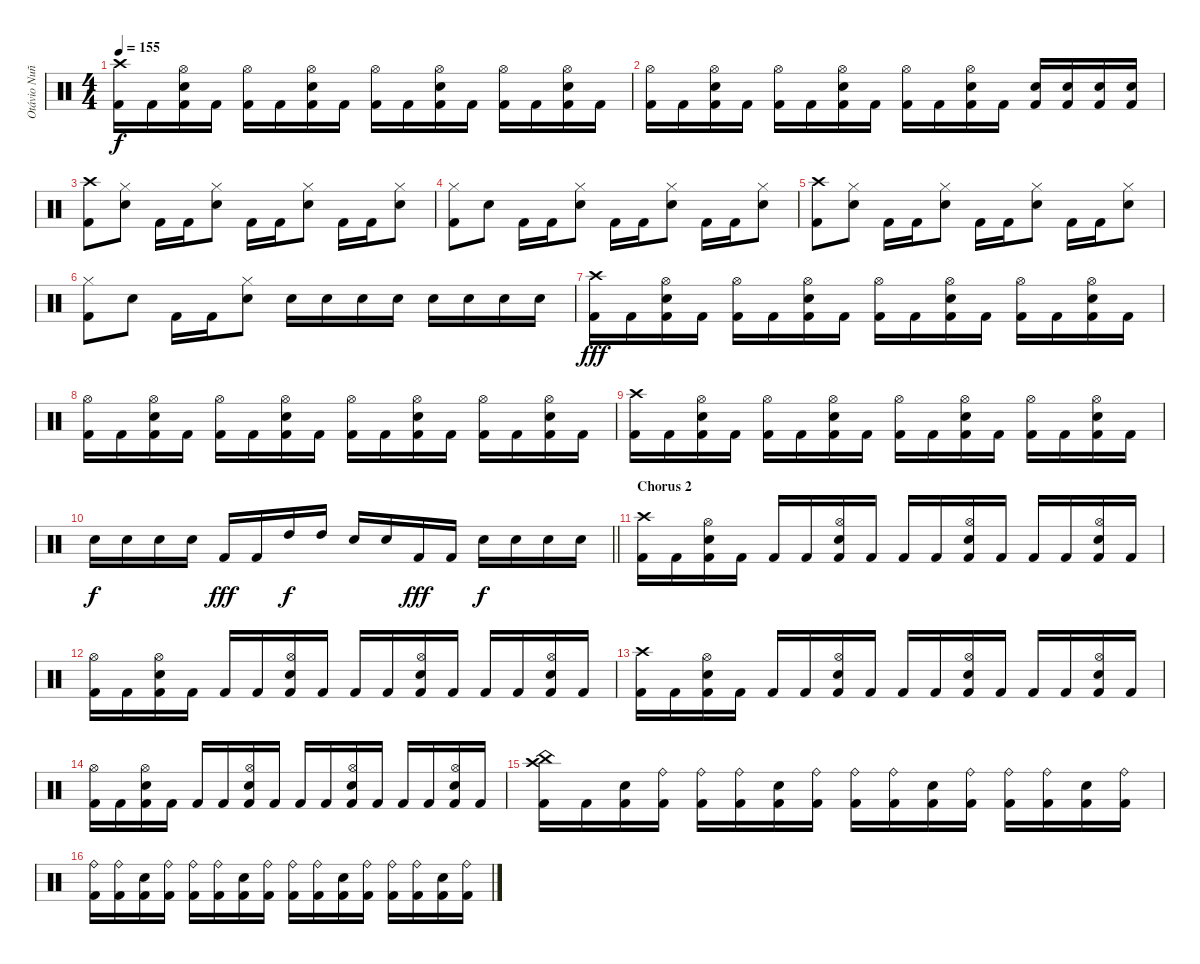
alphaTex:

\track ("Otávio Nuñez" "Otávio Nuñ") {instrument percussion}
\staff {score}
\articulation defaults
\ts (4 4)
\tempo 155
\clef neutral
\ks c
("Crash high (hit)" "Kick (hit) 2").16{dy f} "Kick (hit) 2".16 ("Hi-Hat (open)" "Electric Snare (hit)" "Kick (hit) 2").16 "Kick (hit) 2".16 ("Hi-Hat (open)" "Kick (hit) 2").16 "Kick (hit) 2".16 ("Hi-Hat (open)" "Electric Snare (hit)" "Kick (hit) 2").16 "Kick (hit) 2".16 ("Hi-Hat (open)" "Kick (hit) 2").16 "Kick (hit) 2".16 ("Hi-Hat (open)" "Electric Snare (hit)" "Kick (hit) 2").16 "Kick (hit) 2".16 ("Hi-Hat (open)" "Kick (hit) 2").16 "Kick (hit) 2".16 ("Hi-Hat (open)" "Electric Snare (hit)" "Kick (hit) 2").16 "Kick (hit) 2".16 |
("Hi-Hat (open)" "Kick (hit) 2").16 "Kick (hit) 2".16 ("Hi-Hat (open)" "Electric Snare (hit)" "Kick (hit) 2").16 "Kick (hit) 2".16 ("Hi-Hat (open)" "Kick (hit) 2").16 "Kick (hit) 2".16 ("Hi-Hat (open)" "Electric Snare (hit)" "Kick (hit) 2").16 "Kick (hit) 2".16 ("Hi-Hat (open)" "Kick (hit) 2").16 "Kick (hit) 2".16 ("Hi-Hat (open)" "Electric Snare (hit)" "Kick (hit) 2").16 "Kick (hit) 2".16 ("Electric Snare (hit)" "Kick (hit) 2").16 ("Electric Snare (hit)" "Kick (hit) 2").16 ("Electric Snare (hit)" "Kick (hit) 2").16 ("Electric Snare (hit)" "Kick (hit) 2").16 |
("Crash high (hit)" "Kick (hit) 2").8 ("Hi-Hat (closed)" "Electric Snare (hit)").8 "Kick (hit) 2".16 "Kick (hit) 2".16 ("Hi-Hat (closed)" "Electric Snare (hit)").8 "Kick (hit) 2".16 "Kick (hit) 2".16 ("Hi-Hat (closed)" "Electric Snare (hit)").8 "Kick (hit) 2".16 "Kick (hit) 2".16 ("Hi-Hat (closed)" "Electric Snare (hit)").8 |
("Hi-Hat (closed)" "Kick (hit) 2").8 "Electric Snare (hit)".8 "Kick (hit) 2".16 "Kick (hit) 2".16 ("Hi-Hat (closed)" "Electric Snare (hit)").8 "Kick (hit) 2".16 "Kick (hit) 2".16 ("Hi-Hat (closed)" "Electric Snare (hit)").8 "Kick (hit) 2".16 "Kick (hit) 2".16 ("Hi-Hat (closed)" "Electric Snare (hit)").8 |
("Crash high (hit)" "Kick (hit) 2").8 ("Hi-Hat (closed)" "Electric Snare (hit)").8 "Kick (hit) 2".16 "Kick (hit) 2".16 ("Hi-Hat (closed)" "Electric Snare (hit)").8 "Kick (hit) 2".16 "Kick (hit) 2".16 ("Hi-Hat (closed)" "Electric Snare (hit)").8 "Kick (hit) 2".16 "Kick (hit) 2".16 ("Hi-Hat (closed)" "Electric Snare (hit)").8 |
("Hi-Hat (closed)" "Kick (hit) 2").8 "Electric Snare (hit)".8 "Kick (hit) 2".16 "Kick (hit) 2".16 ("Hi-Hat (closed)" "Electric Snare (hit)").8 "Electric Snare (hit)".16 "Electric Snare (hit)".16 "Electric Snare (hit)".16 "Electric Snare (hit)".16 "Electric Snare (hit)".16 "Electric Snare (hit)".16 "Electric Snare (hit)".16 "Electric Snare (hit)".16 |
("Crash high (hit)" "Kick (hit) 2").16{dy fff} "Kick (hit) 2".16 ("Hi-Hat (open)" "Electric Snare (hit)" "Kick (hit) 2").16 "Kick (hit) 2".16 ("Hi-Hat (open)" "Kick (hit) 2").16 "Kick (hit) 2".16 ("Hi-Hat (open)" "Electric Snare (hit)" "Kick (hit) 2").16 "Kick (hit) 2".16 ("Hi-Hat (open)" "Kick (hit) 2").16 "Kick (hit) 2".16 ("Hi-Hat (open)" "Electric Snare (hit)" "Kick (hit) 2").16 "Kick (hit) 2".16 ("Hi-Hat (open)" "Kick (hit) 2").16 "Kick (hit) 2".16 ("Hi-Hat (open)" "Electric Snare (hit)" "Kick (hit) 2").16 "Kick (hit) 2".16 |
("Hi-Hat (open)" "Kick (hit) 2").16 "Kick (hit) 2".16 ("Hi-Hat (open)" "Electric Snare (hit)" "Kick (hit) 2").16 "Kick (hit) 2".16 ("Hi-Hat (open)" "Kick (hit) 2").16 "Kick (hit) 2".16 ("Hi-Hat (open)" "Electric Snare (hit)" "Kick (hit) 2").16 "Kick (hit) 2".16 ("Hi-Hat (open)" "Kick (hit) 2").16 "Kick (hit) 2".16 ("Hi-Hat (open)" "Electric Snare (hit)" "Kick (hit) 2").16 "Kick (hit) 2".16 ("Hi-Hat (open)" "Kick (hit) 2").16 "Kick (hit) 2".16 ("Hi-Hat (open)" "Electric Snare (hit)" "Kick (hit) 2").16 "Kick (hit) 2".16 |
("Crash high (hit)" "Kick (hit) 2").16 "Kick (hit) 2".16 ("Hi-Hat (open)" "Electric Snare (hit)" "Kick (hit) 2").16 "Kick (hit) 2".16 ("Hi-Hat (open)" "Kick (hit) 2").16 "Kick (hit) 2".16 ("Hi-Hat (open)" "Electric Snare (hit)" "Kick (hit) 2").16 "Kick (hit) 2".16 ("Hi-Hat (open)" "Kick (hit) 2").16 "Kick (hit) 2".16 ("Hi-Hat (open)" "Electric Snare (hit)" "Kick (hit) 2").16 "Kick (hit) 2".16 ("Hi-Hat (open)" "Kick (hit) 2").16 "Kick (hit) 2".16 ("Hi-Hat (open)" "Electric Snare (hit)" "Kick (hit) 2").16 "Kick (hit) 2".16 |
\barLineRight lightlight "Electric Snare (hit)".16{dy f} "Electric Snare (hit)".16 "Electric Snare (hit)".16 "Electric Snare (hit)".16 "Kick (hit) 2".16{dy fff} "Kick (hit) 2".16 "High Tom (hit)".16{dy f} "High Tom (hit)".16 "Electric Snare (hit)".16 "Electric Snare (hit)".16 "Kick (hit) 2".16{dy fff} "Kick (hit) 2".16 "Electric Snare (hit)".16{dy f} "Electric Snare (hit)".16 "Electric Snare (hit)".16 "Electric Snare (hit)".16
|
\section ("" "Chorus 2")
("Crash high (hit)" "Kick (hit) 2").16 "Kick (hit) 2".16 ("Hi-Hat (open)" "Electric Snare (hit)" "Kick (hit) 2").16 "Kick (hit) 2".16 "Kick (hit) 2".16 "Kick (hit) 2".16 ("Hi-Hat (open)" "Electric Snare (hit)" "Kick (hit) 2").16 "Kick (hit) 2".16 "Kick (hit) 2".16 "Kick (hit) 2".16 ("Hi-Hat (open)" "Electric Snare (hit)" "Kick (hit) 2").16 "Kick (hit) 2".16 "Kick (hit) 2".16 "Kick (hit) 2".16 ("Hi-Hat (open)" "Electric Snare (hit)" "Kick (hit) 2").16 "Kick (hit) 2".16 |
("Hi-Hat (open)" "Kick (hit) 2").16 "Kick (hit) 2".16 ("Hi-Hat (open)" "Electric Snare (hit)" "Kick (hit) 2").16 "Kick (hit) 2".16 "Kick (hit) 2".16 "Kick (hit) 2".16 ("Hi-Hat (open)" "Electric Snare (hit)" "Kick (hit) 2").16 "Kick (hit) 2".16 "Kick (hit) 2".16 "Kick (hit) 2".16 ("Hi-Hat (open)" "Electric Snare (hit)" "Kick (hit) 2").16 "Kick (hit) 2".16 "Kick (hit) 2".16 "Kick (hit) 2".16 ("Hi-Hat (open)" "Electric Snare (hit)" "Kick (hit) 2").16 "Kick (hit) 2".16 |
("Crash high (hit)" "Kick (hit) 2").16 "Kick (hit) 2".16 ("Hi-Hat (open)" "Electric Snare (hit)" "Kick (hit) 2").16 "Kick (hit) 2".16 "Kick (hit) 2".16 "Kick (hit) 2".16 ("Hi-Hat (open)" "Electric Snare (hit)" "Kick (hit) 2").16 "Kick (hit) 2".16 "Kick (hit) 2".16 "Kick (hit) 2".16 ("Hi-Hat (open)" "Electric Snare (hit)" "Kick (hit) 2").16 "Kick (hit) 2".16 "Kick (hit) 2".16 "Kick (hit) 2".16 ("Hi-Hat (open)" "Electric Snare (hit)" "Kick (hit) 2").16 "Kick (hit) 2".16 |
("Hi-Hat (open)" "Kick (hit) 2").16 "Kick (hit) 2".16 ("Hi-Hat (open)" "Electric Snare (hit)" "Kick (hit) 2").16 "Kick (hit) 2".16 "Kick (hit) 2".16 "Kick (hit) 2".16 ("Hi-Hat (open)" "Electric Snare (hit)" "Kick (hit) 2").16 "Kick (hit) 2".16 "Kick (hit) 2".16 "Kick (hit) 2".16 ("Hi-Hat (open)" "Electric Snare (hit)" "Kick (hit) 2").16 "Kick (hit) 2".16 "Kick (hit) 2".16 "Kick (hit) 2".16 ("Hi-Hat (open)" "Electric Snare (hit)" "Kick (hit) 2").16 "Kick (hit) 2".16 |
("China (hit)" "Crash high (hit)" "Kick (hit) 2").16 "Kick (hit) 2".16 ("Electric Snare (hit)" "Kick (hit) 2").16 ("Ride (bell)" "Kick (hit) 2").16 ("Ride (bell)" "Kick (hit) 2").16 ("Ride (bell)" "Kick (hit) 2").16 ("Electric Snare (hit)" "Kick (hit) 2").16 ("Ride (bell)" "Kick (hit) 2").16 ("Ride (bell)" "Kick (hit) 2").16 ("Ride (bell)" "Kick (hit) 2").16 ("Electric Snare (hit)" "Kick (hit) 2").16 ("Ride (bell)" "Kick (hit) 2").16 ("Ride (bell)" "Kick (hit) 2").16 ("Ride (bell)" "Kick (hit) 2").16 ("Electric Snare (hit)" "Kick (hit) 2").16 ("Ride (bell)" "Kick (hit) 2").16 |
("Ride (bell)" "Kick (hit) 2").16 ("Ride (bell)" "Kick (hit) 2").16 ("Electric Snare (hit)" "Kick (hit) 2").16 ("Ride (bell)" "Kick (hit) 2").16 ("Ride (bell)" "Kick (hit) 2").16 ("Ride (bell)" "Kick (hit) 2").16 ("Electric Snare (hit)" "Kick (hit) 2").16 ("Ride (bell)" "Kick (hit) 2").16 ("Ride (bell)" "Kick (hit) 2").16 ("Ride (bell)" "Kick (hit) 2").16 ("Electric Snare (hit)" "Kick (hit) 2").16 ("Ride (bell)" "Kick (hit) 2").16 ("Ride (bell)" "Kick (hit) 2").16 ("Ride (bell)" "Kick (hit) 2").16 ("Electric Snare (hit)" "Kick (hit) 2").16 ("Ride (bell)" "Kick (hit) 2").16
